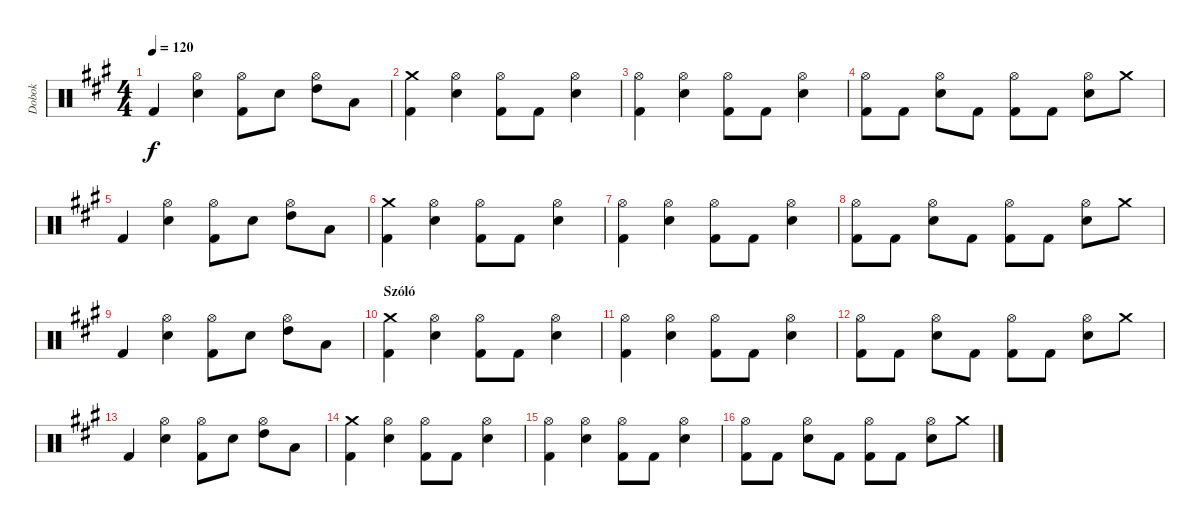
\track ("Dobok" "Dobok") {instrument percussion}
\staff {score}
\articulation defaults
\ts (4 4)
\tempo 120
\clef neutral
\ks a "Kick (hit) 2".4{dy f}
("Hi-Hat (open)" "Snare (hit) 2").4 ("Hi-Hat (open)" "Kick (hit) 2").8 "Snare (hit) 2".8 ("Hi-Hat (open)" "High Tom (hit)").8 "Low Tom (hit)".8 |
("Crash medium (hit)" "Kick (hit) 2").4 ("Hi-Hat (open)" "Snare (hit) 2").4 ("Hi-Hat (open)" "Kick (hit) 2").8 "Kick (hit) 2".8 ("Hi-Hat (open)" "Snare (hit) 2").4 |
("Hi-Hat (open)" "Kick (hit) 2").4 ("Hi-Hat (open)" "Snare (hit) 2").4 ("Hi-Hat (open)" "Kick (hit) 2").8 "Kick (hit) 2".8 ("Hi-Hat (open)" "Snare (hit) 2").4 |
("Hi-Hat (open)" "Kick (hit) 2").8 "Kick (hit) 2".8 ("Hi-Hat (open)" "Snare (hit) 2").8 "Kick (hit) 2".8 ("Hi-Hat (open)" "Kick (hit) 2").8 "Kick (hit) 2".8 ("Hi-Hat (open)" "Snare (hit) 2").8 "Crash medium (hit)".8 |
"Kick (hit) 2".4 ("Hi-Hat (open)" "Snare (hit) 2").4 ("Hi-Hat (open)" "Kick (hit) 2").8 "Snare (hit) 2".8 ("Hi-Hat (open)" "High Tom (hit)").8 "Low Tom (hit)".8 |
("Crash medium (hit)" "Kick (hit) 2").4 ("Hi-Hat (open)" "Snare (hit) 2").4 ("Hi-Hat (open)" "Kick (hit) 2").8 "Kick (hit) 2".8 ("Hi-Hat (open)" "Snare (hit) 2").4 |
("Hi-Hat (open)" "Kick (hit) 2").4 ("Hi-Hat (open)" "Snare (hit) 2").4 ("Hi-Hat (open)" "Kick (hit) 2").8 "Kick (hit) 2".8 ("Hi-Hat (open)" "Snare (hit) 2").4 |
("Hi-Hat (open)" "Kick (hit) 2").8 "Kick (hit) 2".8 ("Hi-Hat (open)" "Snare (hit) 2").8 "Kick (hit) 2".8 ("Hi-Hat (open)" "Kick (hit) 2").8 "Kick (hit) 2".8 ("Hi-Hat (open)" "Snare (hit) 2").8 "Crash medium (hit)".8 |
"Kick (hit) 2".4 ("Hi-Hat (open)" "Snare (hit) 2").4 ("Hi-Hat (open)" "Kick (hit) 2").8 "Snare (hit) 2".8 ("Hi-Hat (open)" "High Tom (hit)").8 "Low Tom (hit)".8 |
\section ("" "Szóló")
("Crash medium (hit)" "Kick (hit) 2").4 ("Hi-Hat (open)" "Snare (hit) 2").4 ("Hi-Hat (open)" "Kick (hit) 2").8 "Kick (hit) 2".8 ("Hi-Hat (open)" "Snare (hit) 2").4 |
("Hi-Hat (open)" "Kick (hit) 2").4 ("Hi-Hat (open)" "Snare (hit) 2").4 ("Hi-Hat (open)" "Kick (hit) 2").8 "Kick (hit) 2".8 ("Hi-Hat (open)" "Snare (hit) 2").4 |
("Hi-Hat (open)" "Kick (hit) 2").8 "Kick (hit) 2".8 ("Hi-Hat (open)" "Snare (hit) 2").8 "Kick (hit) 2".8 ("Hi-Hat (open)" "Kick (hit) 2").8 "Kick (hit) 2".8 ("Hi-Hat (open)" "Snare (hit) 2").8 "Crash medium (hit)".8 |
"Kick (hit) 2".4 ("Hi-Hat (open)" "Snare (hit) 2").4 ("Hi-Hat (open)" "Kick (hit) 2").8 "Snare (hit) 2".8 ("Hi-Hat (open)" "High Tom (hit)").8 "Low Tom (hit)".8 |
("Crash medium (hit)" "Kick (hit) 2").4 ("Hi-Hat (open)" "Snare (hit) 2").4 ("Hi-Hat (open)" "Kick (hit) 2").8 "Kick (hit) 2".8 ("Hi-Hat (open)" "Snare (hit) 2").4 |
("Hi-Hat (open)" "Kick (hit) 2").4 ("Hi-Hat (open)" "Snare (hit) 2").4 ("Hi-Hat (open)" "Kick (hit) 2").8 "Kick (hit) 2".8 ("Hi-Hat (open)" "Snare (hit) 2").4 |
("Hi-Hat (open)" "Kick (hit) 2").8 "Kick (hit) 2".8 ("Hi-Hat (open)" "Snare (hit) 2").8 "Kick (hit) 2".8 ("Hi-Hat (open)" "Kick (hit) 2").8 "Kick (hit) 2".8 ("Hi-Hat (open)" "Snare (hit) 2").8 "Crash medium (hit)".8
